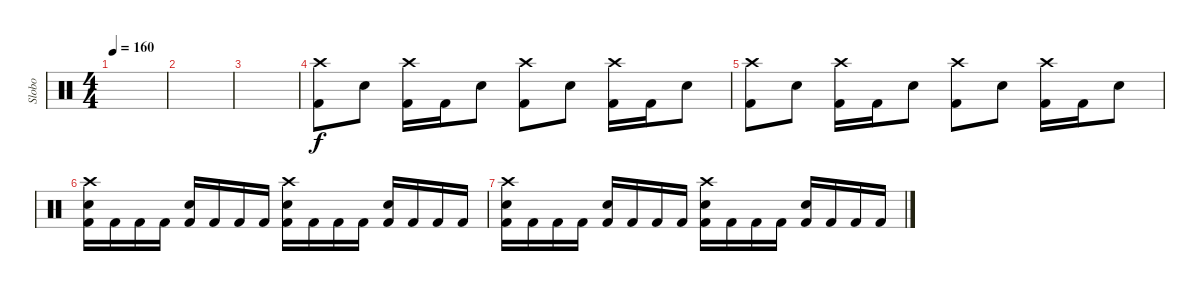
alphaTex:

\track ("Slobo" "Slobo") {instrument percussion}
\staff {score}
\articulation defaults
\ts (4 4)
\tempo 160
\clef neutral
\ks c
|
|
|
("Crash high (hit)" "Kick (hit) 2").8 "Snare (hit) 2".8 ("Crash high (hit)" "Kick (hit) 2").16 "Kick (hit) 2".16 "Snare (hit) 2".8 ("Crash high (hit)" "Kick (hit) 2").8 "Snare (hit) 2".8 ("Crash high (hit)" "Kick (hit) 2").16 "Kick (hit) 2".16 "Snare (hit) 2".8 |
("Crash high (hit)" "Kick (hit) 2").8 "Snare (hit) 2".8 ("Crash high (hit)" "Kick (hit) 2").16 "Kick (hit) 2".16 "Snare (hit) 2".8 ("Crash high (hit)" "Kick (hit) 2").8 "Snare (hit) 2".8 ("Crash high (hit)" "Kick (hit) 2").16 "Kick (hit) 2".16 "Snare (hit) 2".8 |
("Crash high (hit)" "Snare (hit) 2" "Kick (hit) 2").16 "Kick (hit) 2".16 "Kick (hit) 2".16 "Kick (hit) 2".16 ("Snare (hit) 2" "Kick (hit) 2").16 "Kick (hit) 2".16 "Kick (hit) 2".16 "Kick (hit) 2".16 ("Crash high (hit)" "Snare (hit) 2" "Kick (hit) 2").16 "Kick (hit) 2".16 "Kick (hit) 2".16 "Kick (hit) 2".16 ("Snare (hit) 2" "Kick (hit) 2").16 "Kick (hit) 2".16 "Kick (hit) 2".16 "Kick (hit) 2".16 |
("Crash high (hit)" "Snare (hit) 2" "Kick (hit) 2").16 "Kick (hit) 2".16 "Kick (hit) 2".16 "Kick (hit) 2".16 ("Snare (hit) 2" "Kick (hit) 2").16 "Kick (hit) 2".16 "Kick (hit) 2".16 "Kick (hit) 2".16 ("Crash high (hit)" "Snare (hit) 2" "Kick (hit) 2").16 "Kick (hit) 2".16 "Kick (hit) 2".16 "Kick (hit) 2".16 ("Snare (hit) 2" "Kick (hit) 2").16 "Kick (hit) 2".16 "Kick (hit) 2".16 "Kick (hit) 2".16
